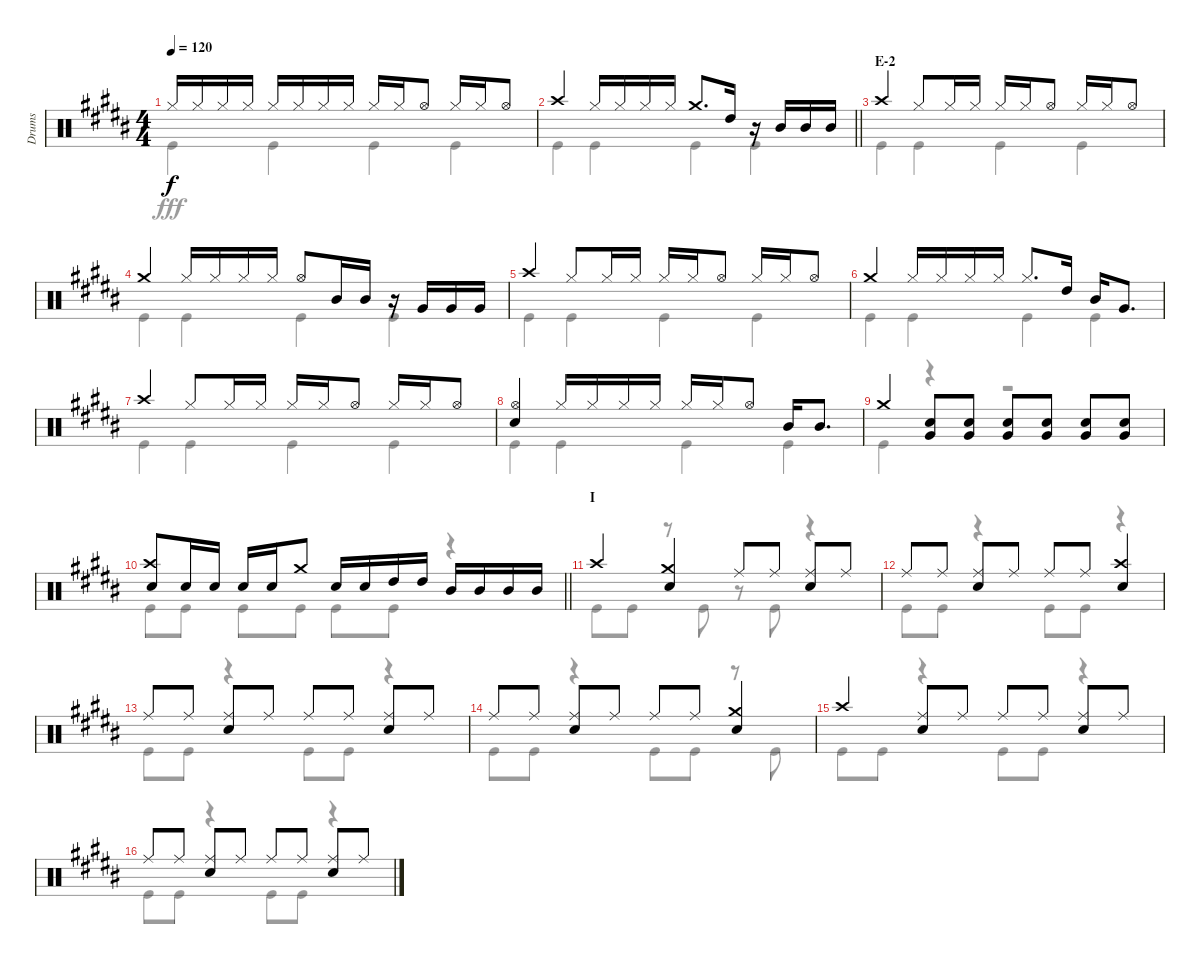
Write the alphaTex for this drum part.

\track ("Drums" "Drums") {instrument percussion}
\staff {score}
\articulation defaults
\voice
\ts (4 4)
\tempo 120
\clef neutral
\ks b "Hi-Hat (closed)".16{dy f} "Hi-Hat (closed)".16 "Hi-Hat (closed)".16 "Hi-Hat (closed)".16 "Hi-Hat (closed)".16 "Hi-Hat (closed)".16 "Hi-Hat (closed)".16 "Hi-Hat (closed)".16 "Hi-Hat (closed)".16 "Hi-Hat (closed)".16 "Hi-Hat (open)".8 "Hi-Hat (closed)".16 "Hi-Hat (closed)".16 "Hi-Hat (open)".8
|
\barLineRight lightlight "Crash high (hit)".4 "Hi-Hat (closed)".16 "Hi-Hat (closed)".16 "Hi-Hat (closed)".16 "Hi-Hat (closed)".16 "Crash medium (hit)".8{d} "High Tom (hit)".16
r.16 "Mid Tom (hit)".16 "Mid Tom (hit)".16 "Mid Tom (hit)".16 |
\section ("" "E-2")
"Crash high (hit)".4 "Hi-Hat (closed)".8 "Hi-Hat (closed)".16 "Hi-Hat (closed)".16 "Hi-Hat (closed)".16 "Hi-Hat (closed)".16 "Hi-Hat (open)".8 "Hi-Hat (closed)".16 "Hi-Hat (closed)".16 "Hi-Hat (open)".8 |
"Crash medium (hit)".4 "Hi-Hat (closed)".16 "Hi-Hat (closed)".16 "Hi-Hat (closed)".16 "Hi-Hat (closed)".16 "Hi-Hat (open)".8 "Mid Tom (hit)".16 "Mid Tom (hit)".16 r.16 "Very Low Tom (hit)".16 "Very Low Tom (hit)".16 "Very Low Tom (hit)".16 |
"Crash high (hit)".4 "Hi-Hat (closed)".8 "Hi-Hat (closed)".16 "Hi-Hat (closed)".16 "Hi-Hat (closed)".16 "Hi-Hat (closed)".16 "Hi-Hat (open)".8 "Hi-Hat (closed)".16 "Hi-Hat (closed)".16 "Hi-Hat (open)".8 |
"Crash medium (hit)".4 "Hi-Hat (closed)".16 "Hi-Hat (closed)".16 "Hi-Hat (closed)".16 "Hi-Hat (closed)".16 "Hi-Hat (closed)".8{d} "High Tom (hit)".16 "Mid Tom (hit)".16 "Very Low Tom (hit)".8{d} |
"Crash high (hit)".4 "Hi-Hat (closed)".8 "Hi-Hat (closed)".16 "Hi-Hat (closed)".16 "Hi-Hat (closed)".16 "Hi-Hat (closed)".16 "Hi-Hat (open)".8 "Hi-Hat (closed)".16 "Hi-Hat (closed)".16 "Hi-Hat (open)".8 |
("Hi-Hat (open)" "Snare (hit) 2").4 "Hi-Hat (closed)".16 "Hi-Hat (closed)".16 "Hi-Hat (closed)".16 "Hi-Hat (closed)".16 "Hi-Hat (closed)".16 "Hi-Hat (closed)".16 "Hi-Hat (open)".8 "Mid Tom (hit)".16 "Mid Tom (hit)".8{d} |
"Crash medium (hit)".4 ("Snare (hit) 2" "Very Low Tom (hit)").8 ("Snare (hit) 2" "Very Low Tom (hit)").8 ("Snare (hit) 2" "Very Low Tom (hit)").8 ("Snare (hit) 2" "Very Low Tom (hit)").8 ("Snare (hit) 2" "Very Low Tom (hit)").8 ("Snare (hit) 2" "Very Low Tom (hit)").8 |
\barLineRight lightlight
("Crash high (hit)" "Snare (hit) 2").8 "Snare (hit) 2".16 "Snare (hit) 2".16 "Snare (hit) 2".16 "Snare (hit) 2".16 "Crash medium (hit)".8 "Snare (hit) 2".16 "Snare (hit) 2".16 "High Tom (hit)".16 "High Tom (hit)".16 "Mid Tom (hit)".16 "Mid Tom (hit)".16 "Mid Tom (hit)".16 "Mid Tom (hit)".16 |
\section ("" "I")
"Crash high (hit)".4 ("Crash medium (hit)" "Snare (hit) 2").4 "Ride (middle)".8 "Ride (middle)".8 ("Ride (middle)" "Snare (hit) 2").8 "Ride (middle)".8 |
"Ride (middle)".8 "Ride (middle)".8 ("Ride (middle)" "Snare (hit) 2").8 "Ride (middle)".8 "Ride (middle)".8 "Ride (middle)".8 ("Crash high (hit)" "Snare (hit) 2").4 |
"Ride (middle)".8 "Ride (middle)".8 ("Ride (middle)" "Snare (hit) 2").8 "Ride (middle)".8 "Ride (middle)".8 "Ride (middle)".8 ("Ride (middle)" "Snare (hit) 2").8 "Ride (middle)".8 |
"Ride (middle)".8 "Ride (middle)".8 ("Ride (middle)" "Snare (hit) 2").8 "Ride (middle)".8 "Ride (middle)".8 "Ride (middle)".8 ("Crash medium (hit)" "Snare (hit) 2").4 |
"Crash high (hit)".4 ("Ride (middle)" "Snare (hit) 2").8 "Ride (middle)".8 "Ride (middle)".8 "Ride (middle)".8 ("Ride (middle)" "Snare (hit) 2").8 "Ride (middle)".8 |
"Ride (middle)".8 "Ride (middle)".8 ("Ride (middle)" "Snare (hit) 2").8 "Ride (middle)".8 "Ride (middle)".8 "Ride (middle)".8 ("Ride (middle)" "Snare (hit) 2").8 "Ride (middle)".8
\voice
\clef neutral
\ottava regular
\simile none
\ks b "Kick (hit)".4{dy fff} "Kick (hit)".4 "Kick (hit)".4 "Kick (hit)".4
|
\barLineRight lightlight "Kick (hit)".4 "Kick (hit)".4 "Kick (hit)".4 "Kick (hit)".4
|
"Kick (hit)".4 "Kick (hit)".4 "Kick (hit)".4 "Kick (hit)".4 |
"Kick (hit)".4 "Kick (hit)".4 "Kick (hit)".4 "Kick (hit)".4 |
"Kick (hit)".4 "Kick (hit)".4 "Kick (hit)".4 "Kick (hit)".4 |
"Kick (hit)".4 "Kick (hit)".4 "Kick (hit)".4 "Kick (hit)".4 |
"Kick (hit)".4 "Kick (hit)".4 "Kick (hit)".4 "Kick (hit)".4 |
"Kick (hit)".4 "Kick (hit)".4 "Kick (hit)".4 "Kick (hit)".4 |
"Kick (hit)".4 r.4 r.2 |
\barLineRight lightlight "Kick (hit)".8 "Kick (hit)".8 "Kick (hit)".8 "Kick (hit)".8 "Kick (hit)".8 "Kick (hit)".8
r.4 |
"Kick (hit)".8 "Kick (hit)".8 r.8 "Kick (hit)".8 r.8 "Kick (hit)".8 r.4 |
"Kick (hit)".8 "Kick (hit)".8 r.4 "Kick (hit)".8 "Kick (hit)".8 r.4 |
"Kick (hit)".8 "Kick (hit)".8 r.4 "Kick (hit)".8 "Kick (hit)".8 r.4 |
"Kick (hit)".8 "Kick (hit)".8 r.4 "Kick (hit)".8 "Kick (hit)".8 r.8 "Kick (hit)".8 |
"Kick (hit)".8 "Kick (hit)".8 r.4 "Kick (hit)".8 "Kick (hit)".8 r.4 |
"Kick (hit)".8 "Kick (hit)".8 r.4 "Kick (hit)".8 "Kick (hit)".8 r.4
